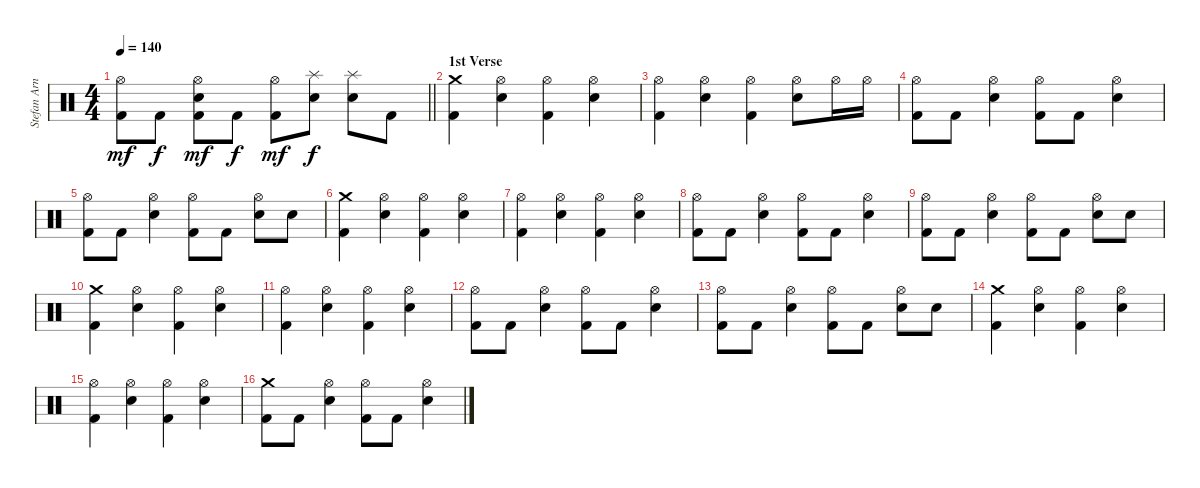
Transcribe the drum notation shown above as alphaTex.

\track ("Stefan Arnold" "Stefan Arn") {instrument percussion}
\staff {score}
\articulation defaults
\ts (4 4)
\tempo 140
\clef neutral
\barLineRight lightlight
\ks c
("Hi-Hat (open)" "Kick (hit) 2").8{dy mf} "Kick (hit) 2".8{dy f} ("Hi-Hat (open)" "Electric Snare (hit)" "Kick (hit) 2").8{dy mf} "Kick (hit) 2".8{dy f} ("Hi-Hat (open)" "Kick (hit) 2").8{dy mf} ("Splash (hit)" "Electric Snare (hit)").8{dy f} ("Splash (hit)" "Electric Snare (hit)").8 "Kick (hit) 2".8 |
\section ("" "1st Verse")
("Crash medium (hit)" "Kick (hit) 2").4 ("Hi-Hat (open)" "Electric Snare (hit)").4 ("Hi-Hat (open)" "Kick (hit) 2").4 ("Hi-Hat (open)" "Electric Snare (hit)").4 |
("Hi-Hat (open)" "Kick (hit) 2").4 ("Hi-Hat (open)" "Electric Snare (hit)").4 ("Hi-Hat (open)" "Kick (hit) 2").4 ("Hi-Hat (open)" "Electric Snare (hit)").8 "Hi-Hat (open)".16 "Hi-Hat (open)".16 |
("Hi-Hat (open)" "Kick (hit) 2").8 "Kick (hit) 2".8 ("Hi-Hat (open)" "Electric Snare (hit)").4 ("Hi-Hat (open)" "Kick (hit) 2").8 "Kick (hit) 2".8 ("Hi-Hat (open)" "Electric Snare (hit)").4 |
("Hi-Hat (open)" "Kick (hit) 2").8 "Kick (hit) 2".8 ("Hi-Hat (open)" "Electric Snare (hit)").4 ("Hi-Hat (open)" "Kick (hit) 2").8 "Kick (hit) 2".8 ("Hi-Hat (open)" "Electric Snare (hit)").8 "Electric Snare (hit)".8 |
("Crash medium (hit)" "Kick (hit) 2").4 ("Hi-Hat (open)" "Electric Snare (hit)").4 ("Hi-Hat (open)" "Kick (hit) 2").4 ("Hi-Hat (open)" "Electric Snare (hit)").4 |
("Hi-Hat (open)" "Kick (hit) 2").4 ("Hi-Hat (open)" "Electric Snare (hit)").4 ("Hi-Hat (open)" "Kick (hit) 2").4 ("Hi-Hat (open)" "Electric Snare (hit)").4 |
("Hi-Hat (open)" "Kick (hit) 2").8 "Kick (hit) 2".8 ("Hi-Hat (open)" "Electric Snare (hit)").4 ("Hi-Hat (open)" "Kick (hit) 2").8 "Kick (hit) 2".8 ("Hi-Hat (open)" "Electric Snare (hit)").4 |
("Hi-Hat (open)" "Kick (hit) 2").8 "Kick (hit) 2".8 ("Hi-Hat (open)" "Electric Snare (hit)").4 ("Hi-Hat (open)" "Kick (hit) 2").8 "Kick (hit) 2".8 ("Hi-Hat (open)" "Electric Snare (hit)").8 "Electric Snare (hit)".8 |
("Crash medium (hit)" "Kick (hit) 2").4 ("Hi-Hat (open)" "Electric Snare (hit)").4 ("Hi-Hat (open)" "Kick (hit) 2").4 ("Hi-Hat (open)" "Electric Snare (hit)").4 |
("Hi-Hat (open)" "Kick (hit) 2").4 ("Hi-Hat (open)" "Electric Snare (hit)").4 ("Hi-Hat (open)" "Kick (hit) 2").4 ("Hi-Hat (open)" "Electric Snare (hit)").4 |
("Hi-Hat (open)" "Kick (hit) 2").8 "Kick (hit) 2".8 ("Hi-Hat (open)" "Electric Snare (hit)").4 ("Hi-Hat (open)" "Kick (hit) 2").8 "Kick (hit) 2".8 ("Hi-Hat (open)" "Electric Snare (hit)").4 |
("Hi-Hat (open)" "Kick (hit) 2").8 "Kick (hit) 2".8 ("Hi-Hat (open)" "Electric Snare (hit)").4 ("Hi-Hat (open)" "Kick (hit) 2").8 "Kick (hit) 2".8 ("Hi-Hat (open)" "Electric Snare (hit)").8 "Electric Snare (hit)".8 |
("Crash medium (hit)" "Kick (hit) 2").4 ("Hi-Hat (open)" "Electric Snare (hit)").4 ("Hi-Hat (open)" "Kick (hit) 2").4 ("Hi-Hat (open)" "Electric Snare (hit)").4 |
("Hi-Hat (open)" "Kick (hit) 2").4 ("Hi-Hat (open)" "Electric Snare (hit)").4 ("Hi-Hat (open)" "Kick (hit) 2").4 ("Hi-Hat (open)" "Electric Snare (hit)").4 |
("Crash medium (hit)" "Kick (hit) 2").8 "Kick (hit) 2".8 ("Hi-Hat (open)" "Electric Snare (hit)").4 ("Hi-Hat (open)" "Kick (hit) 2").8 "Kick (hit) 2".8 ("Hi-Hat (open)" "Electric Snare (hit)").4
